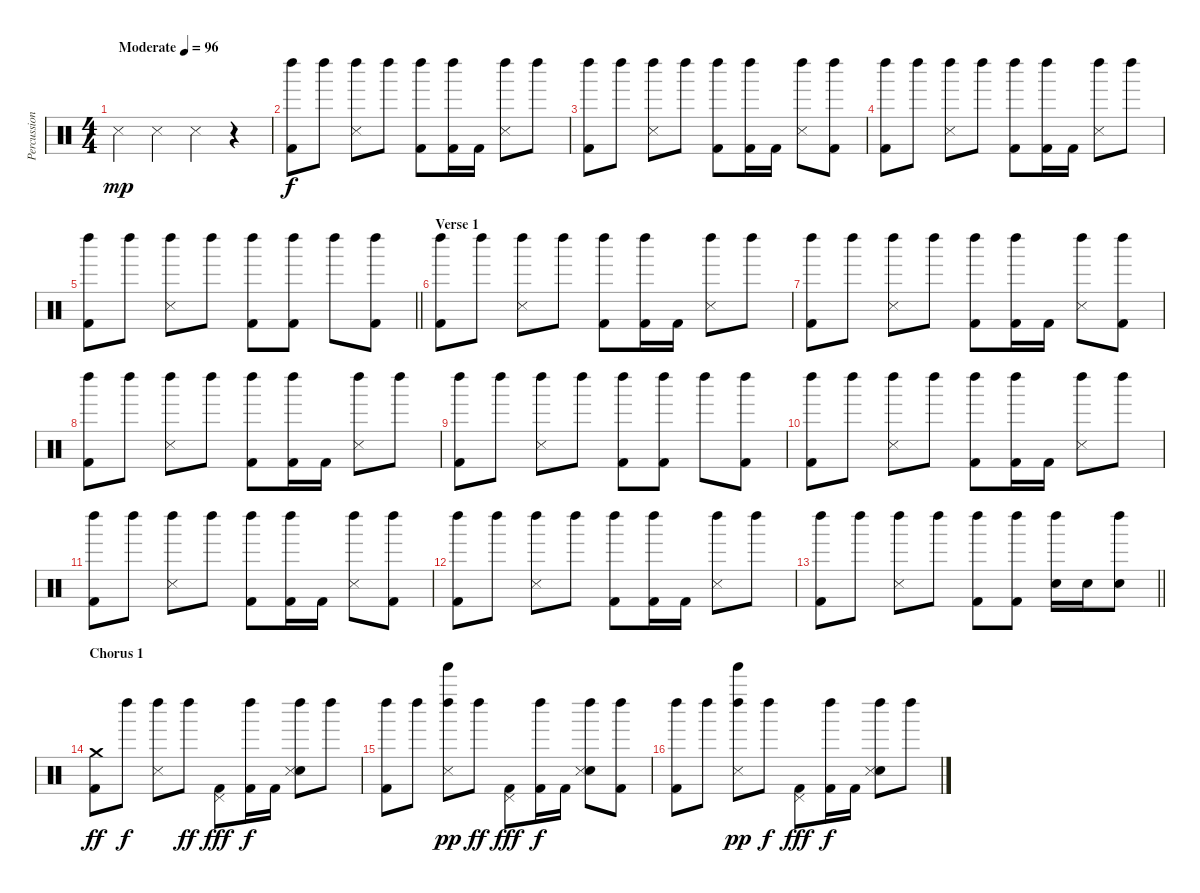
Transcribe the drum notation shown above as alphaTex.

\track ("Percussion" "Percussion") {instrument percussion}
\staff {score}
\articulation defaults
\ts (4 4)
\tempo (96 "Moderate")
\clef neutral
\ks c "Metronome (hit)".4{dy mp} "Metronome (hit)".4 "Metronome (hit)".4
r.4 |
("Left Maraca (hit)" "Kick (hit) 2").8{dy f} "Left Maraca (hit)".8 ("Left Maraca (hit)" "Snare (side stick) 3").8 "Left Maraca (hit)".8 ("Left Maraca (hit)" "Kick (hit) 2").8 ("Left Maraca (hit)" "Kick (hit) 2").16 "Kick (hit) 2".16 ("Left Maraca (hit)" "Snare (side stick) 3").8 "Left Maraca (hit)".8 |
("Left Maraca (hit)" "Kick (hit) 2").8 "Left Maraca (hit)".8 ("Left Maraca (hit)" "Snare (side stick) 3").8 "Left Maraca (hit)".8 ("Left Maraca (hit)" "Kick (hit) 2").8 ("Left Maraca (hit)" "Kick (hit) 2").16 "Kick (hit) 2".16 ("Left Maraca (hit)" "Snare (side stick) 3").8 ("Left Maraca (hit)" "Kick (hit) 2").8 |
("Left Maraca (hit)" "Kick (hit) 2").8 "Left Maraca (hit)".8 ("Left Maraca (hit)" "Snare (side stick) 3").8 "Left Maraca (hit)".8 ("Left Maraca (hit)" "Kick (hit) 2").8 ("Left Maraca (hit)" "Kick (hit) 2").16 "Kick (hit) 2".16 ("Left Maraca (hit)" "Snare (side stick) 3").8 "Left Maraca (hit)".8 |
\barLineRight lightlight
("Left Maraca (hit)" "Kick (hit) 2").8 "Left Maraca (hit)".8 ("Left Maraca (hit)" "Snare (side stick) 3").8 "Left Maraca (hit)".8 ("Left Maraca (hit)" "Kick (hit) 2").8 ("Left Maraca (hit)" "Kick (hit) 2").8 "Left Maraca (hit)".8 ("Left Maraca (hit)" "Kick (hit) 2").8 |
\section ("" "Verse 1")
("Left Maraca (hit)" "Kick (hit) 2").8 "Left Maraca (hit)".8 ("Left Maraca (hit)" "Snare (side stick) 3").8 "Left Maraca (hit)".8 ("Left Maraca (hit)" "Kick (hit) 2").8 ("Left Maraca (hit)" "Kick (hit) 2").16 "Kick (hit) 2".16 ("Left Maraca (hit)" "Snare (side stick) 3").8 "Left Maraca (hit)".8 |
("Left Maraca (hit)" "Kick (hit) 2").8 "Left Maraca (hit)".8 ("Left Maraca (hit)" "Snare (side stick) 3").8 "Left Maraca (hit)".8 ("Left Maraca (hit)" "Kick (hit) 2").8 ("Left Maraca (hit)" "Kick (hit) 2").16 "Kick (hit) 2".16 ("Left Maraca (hit)" "Snare (side stick) 3").8 ("Left Maraca (hit)" "Kick (hit) 2").8 |
("Left Maraca (hit)" "Kick (hit) 2").8 "Left Maraca (hit)".8 ("Left Maraca (hit)" "Snare (side stick) 3").8 "Left Maraca (hit)".8 ("Left Maraca (hit)" "Kick (hit) 2").8 ("Left Maraca (hit)" "Kick (hit) 2").16 "Kick (hit) 2".16 ("Left Maraca (hit)" "Snare (side stick) 3").8 "Left Maraca (hit)".8 |
("Left Maraca (hit)" "Kick (hit) 2").8 "Left Maraca (hit)".8 ("Left Maraca (hit)" "Snare (side stick) 3").8 "Left Maraca (hit)".8 ("Left Maraca (hit)" "Kick (hit) 2").8 ("Left Maraca (hit)" "Kick (hit) 2").8 "Left Maraca (hit)".8 ("Left Maraca (hit)" "Kick (hit) 2").8 |
("Left Maraca (hit)" "Kick (hit) 2").8 "Left Maraca (hit)".8 ("Left Maraca (hit)" "Snare (side stick) 3").8 "Left Maraca (hit)".8 ("Left Maraca (hit)" "Kick (hit) 2").8 ("Left Maraca (hit)" "Kick (hit) 2").16 "Kick (hit) 2".16 ("Left Maraca (hit)" "Snare (side stick) 3").8 "Left Maraca (hit)".8 |
("Left Maraca (hit)" "Kick (hit) 2").8 "Left Maraca (hit)".8 ("Left Maraca (hit)" "Snare (side stick) 3").8 "Left Maraca (hit)".8 ("Left Maraca (hit)" "Kick (hit) 2").8 ("Left Maraca (hit)" "Kick (hit) 2").16 "Kick (hit) 2".16 ("Left Maraca (hit)" "Snare (side stick) 3").8 ("Left Maraca (hit)" "Kick (hit) 2").8 |
("Left Maraca (hit)" "Kick (hit) 2").8 "Left Maraca (hit)".8 ("Left Maraca (hit)" "Snare (side stick) 3").8 "Left Maraca (hit)".8 ("Left Maraca (hit)" "Kick (hit) 2").8 ("Left Maraca (hit)" "Kick (hit) 2").16 "Kick (hit) 2".16 ("Left Maraca (hit)" "Snare (side stick) 3").8 "Left Maraca (hit)".8 |
\barLineRight lightlight
("Left Maraca (hit)" "Kick (hit) 2").8 "Left Maraca (hit)".8 ("Left Maraca (hit)" "Snare (side stick) 3").8 "Left Maraca (hit)".8 ("Left Maraca (hit)" "Kick (hit) 2").8 ("Left Maraca (hit)" "Kick (hit) 2").8 ("Left Maraca (hit)" "Snare (hit) 2").16 "Snare (hit) 2".16 ("Left Maraca (hit)" "Electric Snare (hit)").8 |
\section ("" "Chorus 1")
("Crash medium (hit)" "Kick (hit) 2").8{dy ff} "Left Maraca (hit)".8{dy f} ("Left Maraca (hit)" "Snare (side stick) 3").8 "Left Maraca (hit)".8{dy ff} ("Pedal Hi-Hat (hit)" "Kick (hit) 2").8{dy fff} ("Left Maraca (hit)" "Kick (hit) 2").16{dy f} "Kick (hit) 2".16 ("Left Maraca (hit)" "Hand Clap (hit)" "Snare (side stick) 3").8 "Left Maraca (hit)".8 |
("Left Maraca (hit)" "Kick (hit) 2").8 "Left Maraca (hit)".8 ("Left Maraca (hit)" "Tinkle Bell (hit)" "Snare (side stick) 3").8{dy pp} "Left Maraca (hit)".8{dy ff} ("Pedal Hi-Hat (hit)" "Kick (hit) 2").8{dy fff} ("Left Maraca (hit)" "Kick (hit) 2").16{dy f} "Kick (hit) 2".16 ("Left Maraca (hit)" "Hand Clap (hit)" "Snare (side stick) 3").8 ("Left Maraca (hit)" "Kick (hit) 2").8 |
("Left Maraca (hit)" "Kick (hit) 2").8 "Left Maraca (hit)".8 ("Left Maraca (hit)" "Tinkle Bell (hit)" "Snare (side stick) 3").8{dy pp} "Left Maraca (hit)".8{dy f} ("Pedal Hi-Hat (hit)" "Kick (hit) 2").8{dy fff} ("Left Maraca (hit)" "Kick (hit) 2").16{dy f} "Kick (hit) 2".16 ("Left Maraca (hit)" "Hand Clap (hit)" "Snare (side stick) 3").8 "Left Maraca (hit)".8
